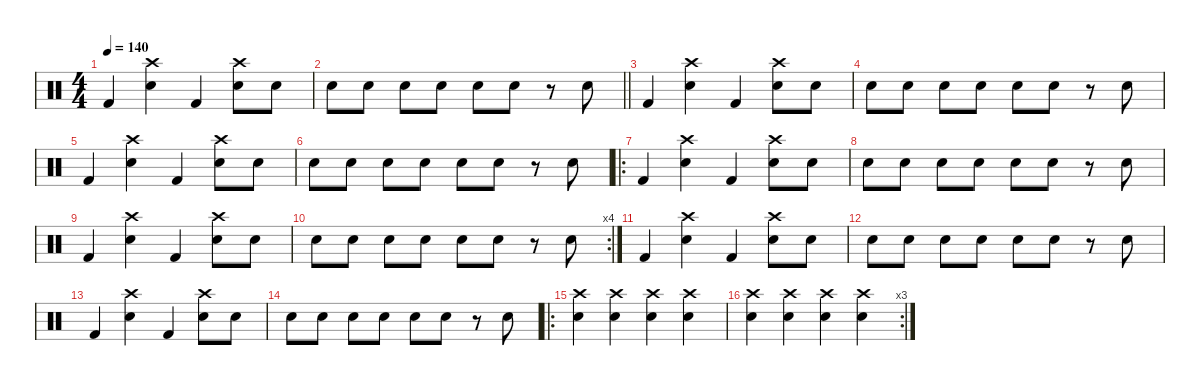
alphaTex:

\defaultSystemsLayout 4
\hideDynamics
\bracketExtendMode nobrackets
\singleTrackTrackNamePolicy hidden
\multiTrackTrackNamePolicy hidden
\otherSystemsTrackNameOrientation horizontal
\track ("Charlie Watts" "drm.") {instrument percussion}
\staff {score}
\articulation defaults
\ts (4 4)
\tempo 140
\clef neutral
\ks c "Kick (hit) 2".4{dy f beam Up}
("Snare (hit) 2" "Crash high (hit)").4{beam Down} "Kick (hit) 2".4{beam Up} ("Snare (hit) 2" "Crash high (hit)").8{beam Down} "Snare (hit) 2".8{beam Down} |
\barLineRight lightlight "Snare (hit) 2".8{beam Down} "Snare (hit) 2".8{beam Down} "Snare (hit) 2".8{beam Down} "Snare (hit) 2".8{beam Down} "Snare (hit) 2".8{beam Down} "Snare (hit) 2".8{beam Down}
r.8{beam Down} "Snare (hit) 2".8{beam Down} |
"Kick (hit) 2".4{beam Up} ("Snare (hit) 2" "Crash high (hit)").4{beam Down} "Kick (hit) 2".4{beam Up} ("Snare (hit) 2" "Crash high (hit)").8{beam Down} "Snare (hit) 2".8{beam Down} |
"Snare (hit) 2".8{beam Down} "Snare (hit) 2".8{beam Down} "Snare (hit) 2".8{beam Down} "Snare (hit) 2".8{beam Down} "Snare (hit) 2".8{beam Down} "Snare (hit) 2".8{beam Down} r.8{beam Down} "Snare (hit) 2".8{beam Down} |
"Kick (hit) 2".4{beam Up} ("Snare (hit) 2" "Crash high (hit)").4{beam Down} "Kick (hit) 2".4{beam Up} ("Snare (hit) 2" "Crash high (hit)").8{beam Down} "Snare (hit) 2".8{beam Down} |
"Snare (hit) 2".8{beam Down} "Snare (hit) 2".8{beam Down} "Snare (hit) 2".8{beam Down} "Snare (hit) 2".8{beam Down} "Snare (hit) 2".8{beam Down} "Snare (hit) 2".8{beam Down} r.8{beam Down} "Snare (hit) 2".8{beam Down} |
\ro "Kick (hit) 2".4{beam Up}
("Snare (hit) 2" "Crash high (hit)").4{beam Down} "Kick (hit) 2".4{beam Up} ("Snare (hit) 2" "Crash high (hit)").8{beam Down} "Snare (hit) 2".8{beam Down} |
"Snare (hit) 2".8{beam Down} "Snare (hit) 2".8{beam Down} "Snare (hit) 2".8{beam Down} "Snare (hit) 2".8{beam Down} "Snare (hit) 2".8{beam Down} "Snare (hit) 2".8{beam Down} r.8{beam Down} "Snare (hit) 2".8{beam Down} |
"Kick (hit) 2".4{beam Up} ("Snare (hit) 2" "Crash high (hit)").4{beam Down} "Kick (hit) 2".4{beam Up} ("Snare (hit) 2" "Crash high (hit)").8{beam Down} "Snare (hit) 2".8{beam Down} |
\rc 4 "Snare (hit) 2".8{beam Down} "Snare (hit) 2".8{beam Down} "Snare (hit) 2".8{beam Down} "Snare (hit) 2".8{beam Down} "Snare (hit) 2".8{beam Down} "Snare (hit) 2".8{beam Down}
r.8{beam Down} "Snare (hit) 2".8{beam Down} |
"Kick (hit) 2".4{beam Up} ("Snare (hit) 2" "Crash high (hit)").4{beam Down} "Kick (hit) 2".4{beam Up} ("Snare (hit) 2" "Crash high (hit)").8{beam Down} "Snare (hit) 2".8{beam Down} |
"Snare (hit) 2".8{beam Down} "Snare (hit) 2".8{beam Down} "Snare (hit) 2".8{beam Down} "Snare (hit) 2".8{beam Down} "Snare (hit) 2".8{beam Down} "Snare (hit) 2".8{beam Down} r.8{beam Down} "Snare (hit) 2".8{beam Down} |
"Kick (hit) 2".4{beam Up} ("Snare (hit) 2" "Crash high (hit)").4{beam Down} "Kick (hit) 2".4{beam Up} ("Snare (hit) 2" "Crash high (hit)").8{beam Down} "Snare (hit) 2".8{beam Down} |
"Snare (hit) 2".8{beam Down} "Snare (hit) 2".8{beam Down} "Snare (hit) 2".8{beam Down} "Snare (hit) 2".8{beam Down} "Snare (hit) 2".8{beam Down} "Snare (hit) 2".8{beam Down} r.8{beam Down} "Snare (hit) 2".8{beam Down} |
\ro
("Snare (hit) 2" "Crash high (hit)").4{beam Down} ("Snare (hit) 2" "Crash high (hit)").4{beam Down} ("Snare (hit) 2" "Crash high (hit)").4{beam Down} ("Snare (hit) 2" "Crash high (hit)").4{beam Down} |
\rc 3
("Snare (hit) 2" "Crash high (hit)").4{beam Down} ("Snare (hit) 2" "Crash high (hit)").4{beam Down} ("Snare (hit) 2" "Crash high (hit)").4{beam Down} ("Snare (hit) 2" "Crash high (hit)").4{beam Down}
